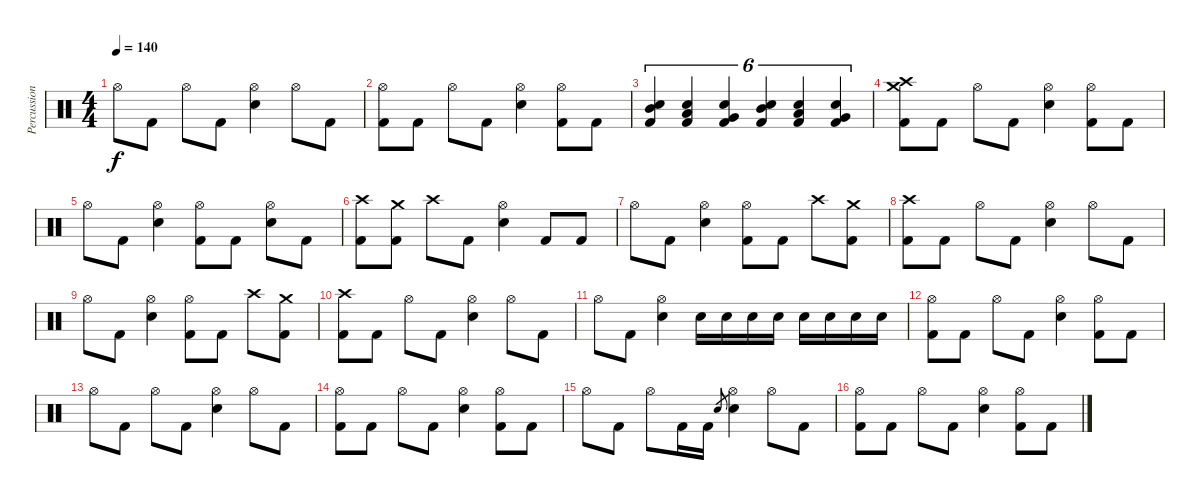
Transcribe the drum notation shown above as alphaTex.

\track ("Percussion" "Percussion") {instrument percussion}
\staff {score}
\articulation defaults
\ts (4 4)
\tempo 140
\clef neutral
\ks c "Hi-Hat (open)".8{dy f} "Kick (hit) 2".8 "Hi-Hat (open)".8 "Kick (hit) 2".8
("Hi-Hat (open)" "Electric Snare (hit)").4 "Hi-Hat (open)".8 "Kick (hit) 2".8 |
("Hi-Hat (open)" "Kick (hit) 2").8 "Kick (hit) 2".8 "Hi-Hat (open)".8 "Kick (hit) 2".8 ("Hi-Hat (open)" "Electric Snare (hit)").4 ("Hi-Hat (open)" "Kick (hit) 2").8 "Kick (hit) 2".8 |
("Mid Tom (hit)" "Electric Snare (hit)" "Kick (hit) 2").4{tu (6 4)} ("Low Tom (hit)" "Electric Snare (hit)" "Kick (hit) 2").4{tu (6 4)} ("Very Low Tom (hit)" "Electric Snare (hit)" "Kick (hit) 2").4{tu (6 4)} ("Mid Tom (hit)" "Electric Snare (hit)" "Kick (hit) 2").4{tu (6 4)} ("Low Tom (hit)" "Electric Snare (hit)" "Kick (hit) 2").4{tu (6 4)} ("Very Low Tom (hit)" "Electric Snare (hit)" "Kick (hit) 2").4{tu (6 4)} |
("Crash high (hit)" "Crash medium (hit)" "Kick (hit) 2").8 "Kick (hit) 2".8 "Hi-Hat (open)".8 "Kick (hit) 2".8 ("Hi-Hat (open)" "Electric Snare (hit)").4 ("Hi-Hat (open)" "Kick (hit) 2").8 "Kick (hit) 2".8 |
"Hi-Hat (open)".8 "Kick (hit) 2".8 ("Hi-Hat (open)" "Electric Snare (hit)").4 ("Hi-Hat (open)" "Kick (hit) 2").8 "Kick (hit) 2".8 ("Hi-Hat (open)" "Electric Snare (hit)").8 "Kick (hit) 2".8 |
("Crash high (hit)" "Kick (hit) 2").8 ("Crash medium (hit)" "Kick (hit) 2").8 "Crash high (hit)".8 "Kick (hit) 2".8 ("Hi-Hat (open)" "Electric Snare (hit)").4 "Kick (hit) 2".8 "Kick (hit) 2".8 |
"Hi-Hat (open)".8 "Kick (hit) 2".8 ("Hi-Hat (open)" "Electric Snare (hit)").4 ("Hi-Hat (open)" "Kick (hit) 2").8 "Kick (hit) 2".8 "Crash high (hit)".8 ("Crash medium (hit)" "Kick (hit) 2").8 |
("Crash high (hit)" "Kick (hit) 2").8 "Kick (hit) 2".8 "Hi-Hat (open)".8 "Kick (hit) 2".8 ("Hi-Hat (open)" "Electric Snare (hit)").4 "Hi-Hat (open)".8 "Kick (hit) 2".8 |
"Hi-Hat (open)".8 "Kick (hit) 2".8 ("Hi-Hat (open)" "Electric Snare (hit)").4 ("Hi-Hat (open)" "Kick (hit) 2").8 "Kick (hit) 2".8 "Crash high (hit)".8 ("Crash medium (hit)" "Kick (hit) 2").8 |
("Crash high (hit)" "Kick (hit) 2").8 "Kick (hit) 2".8 "Hi-Hat (open)".8 "Kick (hit) 2".8 ("Hi-Hat (open)" "Electric Snare (hit)").4 "Hi-Hat (open)".8 "Kick (hit) 2".8 |
"Hi-Hat (open)".8 "Kick (hit) 2".8 ("Hi-Hat (open)" "Electric Snare (hit)").4 "Electric Snare (hit)".16 "Electric Snare (hit)".16 "Electric Snare (hit)".16 "Electric Snare (hit)".16 "Electric Snare (hit)".16 "Electric Snare (hit)".16 "Electric Snare (hit)".16 "Electric Snare (hit)".16 |
("Hi-Hat (open)" "Kick (hit) 2").8 "Kick (hit) 2".8 "Hi-Hat (open)".8 "Kick (hit) 2".8 ("Hi-Hat (open)" "Electric Snare (hit)").4 ("Hi-Hat (open)" "Kick (hit) 2").8 "Kick (hit) 2".8 |
"Hi-Hat (open)".8 "Kick (hit) 2".8 "Hi-Hat (open)".8 "Kick (hit) 2".8 ("Hi-Hat (open)" "Electric Snare (hit)").4 "Hi-Hat (open)".8 "Kick (hit) 2".8 |
("Hi-Hat (open)" "Kick (hit) 2").8 "Kick (hit) 2".8 "Hi-Hat (open)".8 "Kick (hit) 2".8 ("Hi-Hat (open)" "Electric Snare (hit)").4 ("Hi-Hat (open)" "Kick (hit) 2").8 "Kick (hit) 2".8 |
"Hi-Hat (open)".8 "Kick (hit) 2".8 "Hi-Hat (open)".8 "Kick (hit) 2".16 "Kick (hit) 2".16 "Electric Snare (hit)".8{gr} ("Hi-Hat (open)" "Electric Snare (hit)").4 "Hi-Hat (open)".8 "Kick (hit) 2".8 |
("Hi-Hat (open)" "Kick (hit) 2").8 "Kick (hit) 2".8 "Hi-Hat (open)".8 "Kick (hit) 2".8 ("Hi-Hat (open)" "Electric Snare (hit)").4 ("Hi-Hat (open)" "Kick (hit) 2").8 "Kick (hit) 2".8
